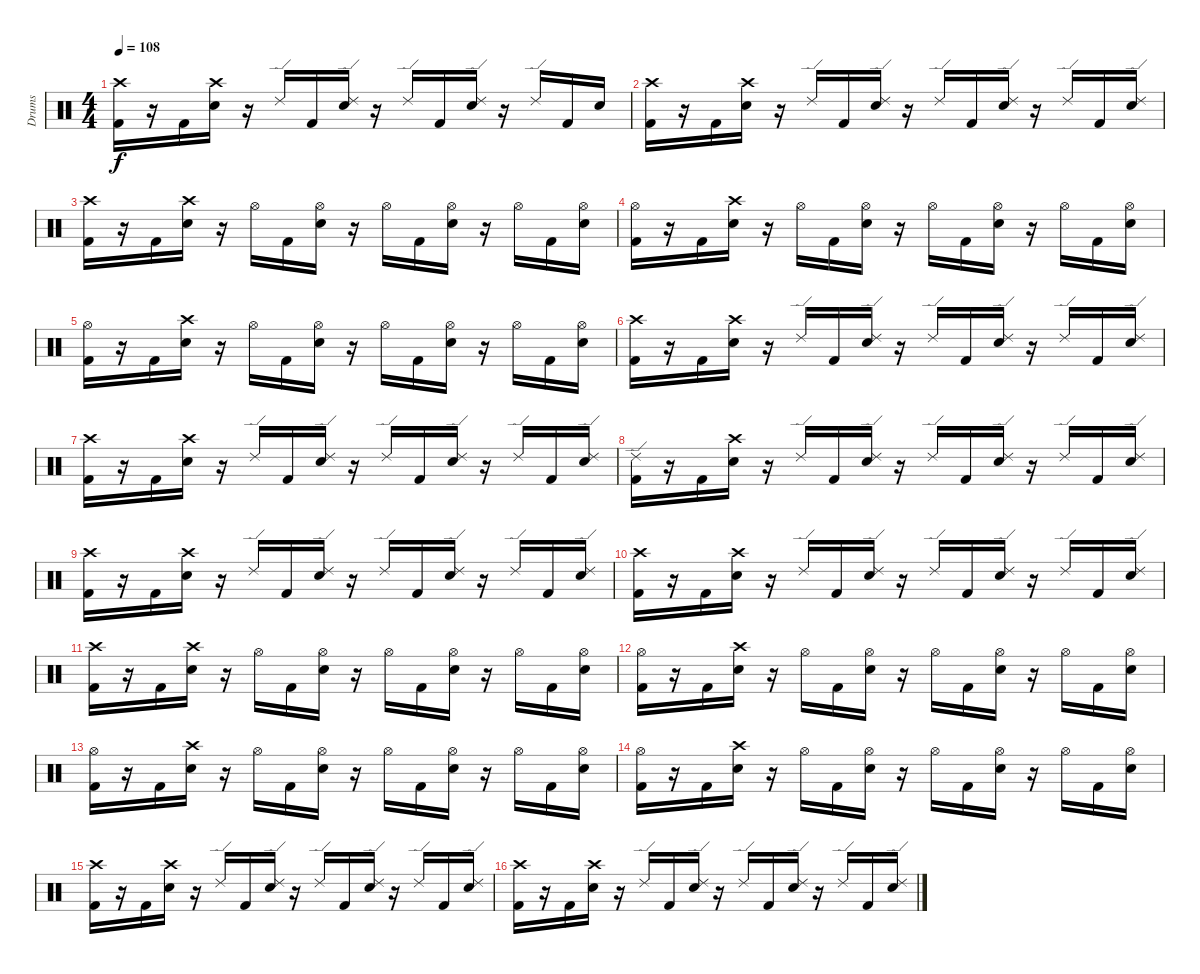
\track ("Drums" "Drums") {instrument percussion}
\staff {score}
\articulation defaults
\ts (4 4)
\tempo 108
\clef neutral
\ks c
("Crash high (hit)" "Kick (hit) 2").16{dy f} r.16 "Kick (hit) 2".16 ("Crash high (hit)" "Electric Snare (hit)").16 r.16 "Ride (edge) 2".16 "Kick (hit) 2".16 ("Ride (edge) 2" "Electric Snare (hit)").16 r.16 "Ride (edge) 2".16 "Kick (hit) 2".16 ("Ride (edge) 2" "Electric Snare (hit)").16 r.16 "Ride (edge) 2".16 "Kick (hit) 2".16 "Electric Snare (hit)".16 |
("Crash high (hit)" "Kick (hit) 2").16 r.16 "Kick (hit) 2".16 ("Crash high (hit)" "Electric Snare (hit)").16 r.16 "Ride (edge) 2".16 "Kick (hit) 2".16 ("Ride (edge) 2" "Electric Snare (hit)").16 r.16 "Ride (edge) 2".16 "Kick (hit) 2".16 ("Ride (edge) 2" "Electric Snare (hit)").16 r.16 "Ride (edge) 2".16 "Kick (hit) 2".16 ("Ride (edge) 2" "Electric Snare (hit)").16 |
("Crash high (hit)" "Kick (hit) 2").16 r.16 "Kick (hit) 2".16 ("Crash high (hit)" "Electric Snare (hit)").16 r.16 "Hi-Hat (open)".16 "Kick (hit) 2".16 ("Hi-Hat (open)" "Electric Snare (hit)").16 r.16 "Hi-Hat (open)".16 "Kick (hit) 2".16 ("Hi-Hat (open)" "Electric Snare (hit)").16 r.16 "Hi-Hat (open)".16 "Kick (hit) 2".16 ("Hi-Hat (open)" "Electric Snare (hit)").16 |
("Hi-Hat (open)" "Kick (hit) 2").16 r.16 "Kick (hit) 2".16 ("Crash high (hit)" "Electric Snare (hit)").16 r.16 "Hi-Hat (open)".16 "Kick (hit) 2".16 ("Hi-Hat (open)" "Electric Snare (hit)").16 r.16 "Hi-Hat (open)".16 "Kick (hit) 2".16 ("Hi-Hat (open)" "Electric Snare (hit)").16 r.16 "Hi-Hat (open)".16 "Kick (hit) 2".16 ("Hi-Hat (open)" "Electric Snare (hit)").16 |
("Hi-Hat (open)" "Kick (hit) 2").16 r.16 "Kick (hit) 2".16 ("Crash high (hit)" "Electric Snare (hit)").16 r.16 "Hi-Hat (open)".16 "Kick (hit) 2".16 ("Hi-Hat (open)" "Electric Snare (hit)").16 r.16 "Hi-Hat (open)".16 "Kick (hit) 2".16 ("Hi-Hat (open)" "Electric Snare (hit)").16 r.16 "Hi-Hat (open)".16 "Kick (hit) 2".16 ("Hi-Hat (open)" "Electric Snare (hit)").16 |
("Crash high (hit)" "Kick (hit) 2").16 r.16 "Kick (hit) 2".16 ("Crash high (hit)" "Electric Snare (hit)").16 r.16 "Ride (edge) 2".16 "Kick (hit) 2".16 ("Ride (edge) 2" "Electric Snare (hit)").16 r.16 "Ride (edge) 2".16 "Kick (hit) 2".16 ("Ride (edge) 2" "Electric Snare (hit)").16 r.16 "Ride (edge) 2".16 "Kick (hit) 2".16 ("Ride (edge) 2" "Electric Snare (hit)").16 |
("Crash high (hit)" "Kick (hit) 2").16 r.16 "Kick (hit) 2".16 ("Crash high (hit)" "Electric Snare (hit)").16 r.16 "Ride (edge) 2".16 "Kick (hit) 2".16 ("Ride (edge) 2" "Electric Snare (hit)").16 r.16 "Ride (edge) 2".16 "Kick (hit) 2".16 ("Ride (edge) 2" "Electric Snare (hit)").16 r.16 "Ride (edge) 2".16 "Kick (hit) 2".16 ("Ride (edge) 2" "Electric Snare (hit)").16 |
("Ride (edge) 2" "Kick (hit) 2").16 r.16 "Kick (hit) 2".16 ("Crash high (hit)" "Electric Snare (hit)").16 r.16 "Ride (edge) 2".16 "Kick (hit) 2".16 ("Ride (edge) 2" "Electric Snare (hit)").16 r.16 "Ride (edge) 2".16 "Kick (hit) 2".16 ("Ride (edge) 2" "Electric Snare (hit)").16 r.16 "Ride (edge) 2".16 "Kick (hit) 2".16 ("Ride (edge) 2" "Electric Snare (hit)").16 |
("Crash high (hit)" "Kick (hit) 2").16 r.16 "Kick (hit) 2".16 ("Crash high (hit)" "Electric Snare (hit)").16 r.16 "Ride (edge) 2".16 "Kick (hit) 2".16 ("Ride (edge) 2" "Electric Snare (hit)").16 r.16 "Ride (edge) 2".16 "Kick (hit) 2".16 ("Ride (edge) 2" "Electric Snare (hit)").16 r.16 "Ride (edge) 2".16 "Kick (hit) 2".16 ("Ride (edge) 2" "Electric Snare (hit)").16 |
("Crash high (hit)" "Kick (hit) 2").16 r.16 "Kick (hit) 2".16 ("Crash high (hit)" "Electric Snare (hit)").16 r.16 "Ride (edge) 2".16 "Kick (hit) 2".16 ("Ride (edge) 2" "Electric Snare (hit)").16 r.16 "Ride (edge) 2".16 "Kick (hit) 2".16 ("Ride (edge) 2" "Electric Snare (hit)").16 r.16 "Ride (edge) 2".16 "Kick (hit) 2".16 ("Ride (edge) 2" "Electric Snare (hit)").16 |
("Crash high (hit)" "Kick (hit) 2").16 r.16 "Kick (hit) 2".16 ("Crash high (hit)" "Electric Snare (hit)").16 r.16 "Hi-Hat (open)".16 "Kick (hit) 2".16 ("Hi-Hat (open)" "Electric Snare (hit)").16 r.16 "Hi-Hat (open)".16 "Kick (hit) 2".16 ("Hi-Hat (open)" "Electric Snare (hit)").16 r.16 "Hi-Hat (open)".16 "Kick (hit) 2".16 ("Hi-Hat (open)" "Electric Snare (hit)").16 |
("Hi-Hat (open)" "Kick (hit) 2").16 r.16 "Kick (hit) 2".16 ("Crash high (hit)" "Electric Snare (hit)").16 r.16 "Hi-Hat (open)".16 "Kick (hit) 2".16 ("Hi-Hat (open)" "Electric Snare (hit)").16 r.16 "Hi-Hat (open)".16 "Kick (hit) 2".16 ("Hi-Hat (open)" "Electric Snare (hit)").16 r.16 "Hi-Hat (open)".16 "Kick (hit) 2".16 ("Hi-Hat (open)" "Electric Snare (hit)").16 |
("Hi-Hat (open)" "Kick (hit) 2").16 r.16 "Kick (hit) 2".16 ("Crash high (hit)" "Electric Snare (hit)").16 r.16 "Hi-Hat (open)".16 "Kick (hit) 2".16 ("Hi-Hat (open)" "Electric Snare (hit)").16 r.16 "Hi-Hat (open)".16 "Kick (hit) 2".16 ("Hi-Hat (open)" "Electric Snare (hit)").16 r.16 "Hi-Hat (open)".16 "Kick (hit) 2".16 ("Hi-Hat (open)" "Electric Snare (hit)").16 |
("Hi-Hat (open)" "Kick (hit) 2").16 r.16 "Kick (hit) 2".16 ("Crash high (hit)" "Electric Snare (hit)").16 r.16 "Hi-Hat (open)".16 "Kick (hit) 2".16 ("Hi-Hat (open)" "Electric Snare (hit)").16 r.16 "Hi-Hat (open)".16 "Kick (hit) 2".16 ("Hi-Hat (open)" "Electric Snare (hit)").16 r.16 "Hi-Hat (open)".16 "Kick (hit) 2".16 ("Hi-Hat (open)" "Electric Snare (hit)").16 |
("Crash high (hit)" "Kick (hit) 2").16 r.16 "Kick (hit) 2".16 ("Crash high (hit)" "Electric Snare (hit)").16 r.16 "Ride (edge) 2".16 "Kick (hit) 2".16 ("Ride (edge) 2" "Electric Snare (hit)").16 r.16 "Ride (edge) 2".16 "Kick (hit) 2".16 ("Ride (edge) 2" "Electric Snare (hit)").16 r.16 "Ride (edge) 2".16 "Kick (hit) 2".16 ("Ride (edge) 2" "Electric Snare (hit)").16 |
("Crash high (hit)" "Kick (hit) 2").16 r.16 "Kick (hit) 2".16 ("Crash high (hit)" "Electric Snare (hit)").16 r.16 "Ride (edge) 2".16 "Kick (hit) 2".16 ("Ride (edge) 2" "Electric Snare (hit)").16 r.16 "Ride (edge) 2".16 "Kick (hit) 2".16 ("Ride (edge) 2" "Electric Snare (hit)").16 r.16 "Ride (edge) 2".16 "Kick (hit) 2".16 ("Ride (edge) 2" "Electric Snare (hit)").16
